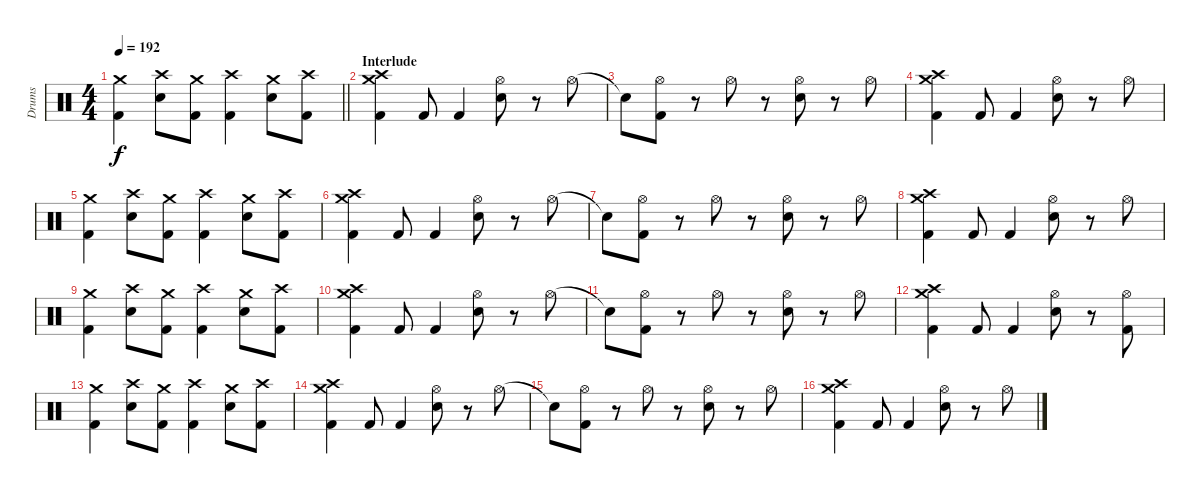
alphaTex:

\track ("Drums" "Drums") {instrument percussion}
\staff {score}
\articulation defaults
\ts (4 4)
\tempo 192
\clef neutral
\barLineRight lightlight
\ks c
("Crash medium (hit)" "Kick (hit) 2").4{dy f} ("Crash high (hit)" "Electric Snare (hit)").8 ("Crash medium (hit)" "Kick (hit) 2").8 ("Crash high (hit)" "Kick (hit) 2").4 ("Crash medium (hit)" "Electric Snare (hit)").8 ("Crash high (hit)" "Kick (hit) 2").8 |
\section ("" "Interlude")
("Crash medium (hit)" "Crash high (hit)" "Kick (hit) 2").4 "Kick (hit) 2".8 "Kick (hit) 2".4 ("Hi-Hat (open)" "Electric Snare (hit)").8 r.8 "Hi-Hat (open)".8 |
"Snare (hit)"{t}.8 ("Hi-Hat (open)" "Kick (hit) 2").8 r.8 "Hi-Hat (open)".8 r.8 ("Hi-Hat (open)" "Electric Snare (hit)").8 r.8 "Hi-Hat (open)".8 |
("Crash medium (hit)" "Crash high (hit)" "Kick (hit) 2").4 "Kick (hit) 2".8 "Kick (hit) 2".4 ("Hi-Hat (open)" "Electric Snare (hit)").8 r.8 "Hi-Hat (open)".8 |
("Crash medium (hit)" "Kick (hit) 2").4 ("Crash high (hit)" "Electric Snare (hit)").8 ("Crash medium (hit)" "Kick (hit) 2").8 ("Crash high (hit)" "Kick (hit) 2").4 ("Crash medium (hit)" "Electric Snare (hit)").8 ("Crash high (hit)" "Kick (hit) 2").8 |
("Crash medium (hit)" "Crash high (hit)" "Kick (hit) 2").4 "Kick (hit) 2".8 "Kick (hit) 2".4 ("Hi-Hat (open)" "Electric Snare (hit)").8 r.8 "Hi-Hat (open)".8 |
"Snare (hit)"{t}.8 ("Hi-Hat (open)" "Kick (hit) 2").8 r.8 "Hi-Hat (open)".8 r.8 ("Hi-Hat (open)" "Electric Snare (hit)").8 r.8 "Hi-Hat (open)".8 |
("Crash medium (hit)" "Crash high (hit)" "Kick (hit) 2").4 "Kick (hit) 2".8 "Kick (hit) 2".4 ("Hi-Hat (open)" "Electric Snare (hit)").8 r.8 "Hi-Hat (open)".8 |
("Crash medium (hit)" "Kick (hit) 2").4 ("Crash high (hit)" "Electric Snare (hit)").8 ("Crash medium (hit)" "Kick (hit) 2").8 ("Crash high (hit)" "Kick (hit) 2").4 ("Crash medium (hit)" "Electric Snare (hit)").8 ("Crash high (hit)" "Kick (hit) 2").8 |
("Crash medium (hit)" "Crash high (hit)" "Kick (hit) 2").4 "Kick (hit) 2".8 "Kick (hit) 2".4 ("Hi-Hat (open)" "Electric Snare (hit)").8 r.8 "Hi-Hat (open)".8 |
"Snare (hit)"{t}.8 ("Hi-Hat (open)" "Kick (hit) 2").8 r.8 "Hi-Hat (open)".8 r.8 ("Hi-Hat (open)" "Electric Snare (hit)").8 r.8 "Hi-Hat (open)".8 |
("Crash medium (hit)" "Crash high (hit)" "Kick (hit) 2").4 "Kick (hit) 2".8 "Kick (hit) 2".4 ("Hi-Hat (open)" "Electric Snare (hit)").8 r.8 ("Hi-Hat (open)" "Kick (hit) 2").8 |
("Crash medium (hit)" "Kick (hit) 2").4 ("Crash high (hit)" "Electric Snare (hit)").8 ("Crash medium (hit)" "Kick (hit) 2").8 ("Crash high (hit)" "Kick (hit) 2").4 ("Crash medium (hit)" "Electric Snare (hit)").8 ("Crash high (hit)" "Kick (hit) 2").8 |
("Crash medium (hit)" "Crash high (hit)" "Kick (hit) 2").4 "Kick (hit) 2".8 "Kick (hit) 2".4 ("Hi-Hat (open)" "Electric Snare (hit)").8 r.8 "Hi-Hat (open)".8 |
"Snare (hit)"{t}.8 ("Hi-Hat (open)" "Kick (hit) 2").8 r.8 "Hi-Hat (open)".8 r.8 ("Hi-Hat (open)" "Electric Snare (hit)").8 r.8 "Hi-Hat (open)".8 |
("Crash medium (hit)" "Crash high (hit)" "Kick (hit) 2").4 "Kick (hit) 2".8 "Kick (hit) 2".4 ("Hi-Hat (open)" "Electric Snare (hit)").8 r.8 "Hi-Hat (open)".8
